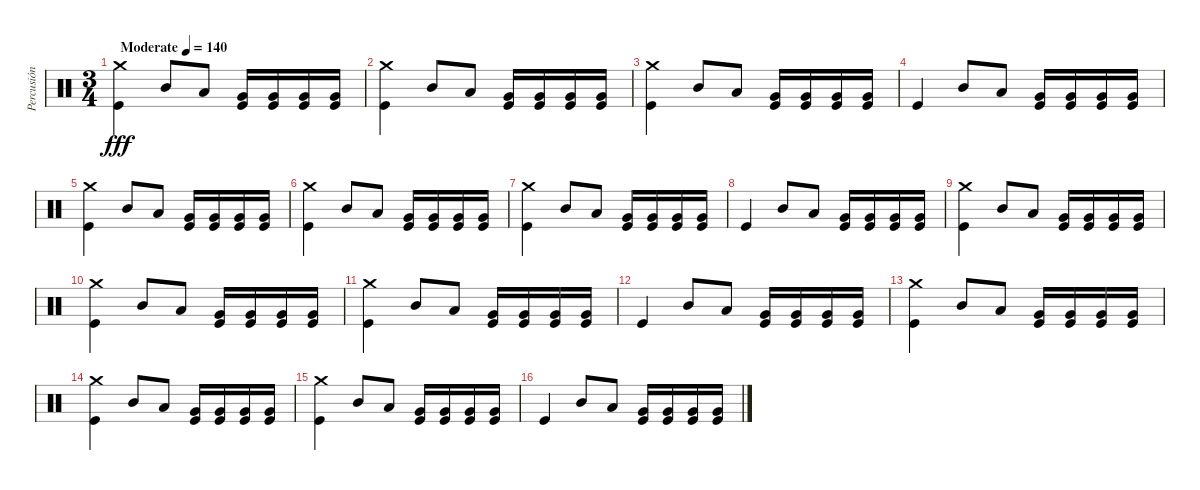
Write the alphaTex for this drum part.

\track ("Percusión" "Percusión") {instrument percussion}
\staff {score}
\articulation defaults
\ts (3 4)
\tempo (140 "Moderate")
\clef neutral
\ks c
("Crash medium (hit)" "Kick (hit)").4{dy fff} "Mid Tom (hit)".8 "Low Tom (hit)".8 ("Very Low Tom (hit)" "Kick (hit)").16 ("Very Low Tom (hit)" "Kick (hit)").16 ("Very Low Tom (hit)" "Kick (hit)").16 ("Very Low Tom (hit)" "Kick (hit)").16 |
("Crash medium (hit)" "Kick (hit)").4 "Mid Tom (hit)".8 "Low Tom (hit)".8 ("Very Low Tom (hit)" "Kick (hit)").16 ("Very Low Tom (hit)" "Kick (hit)").16 ("Very Low Tom (hit)" "Kick (hit)").16 ("Very Low Tom (hit)" "Kick (hit)").16 |
("Crash medium (hit)" "Kick (hit)").4 "Mid Tom (hit)".8 "Low Tom (hit)".8 ("Very Low Tom (hit)" "Kick (hit)").16 ("Very Low Tom (hit)" "Kick (hit)").16 ("Very Low Tom (hit)" "Kick (hit)").16 ("Very Low Tom (hit)" "Kick (hit)").16 |
"Kick (hit)".4 "Mid Tom (hit)".8 "Low Tom (hit)".8 ("Very Low Tom (hit)" "Kick (hit)").16 ("Very Low Tom (hit)" "Kick (hit)").16 ("Very Low Tom (hit)" "Kick (hit)").16 ("Very Low Tom (hit)" "Kick (hit)").16 |
("Crash medium (hit)" "Kick (hit)").4 "Mid Tom (hit)".8 "Low Tom (hit)".8 ("Very Low Tom (hit)" "Kick (hit)").16 ("Very Low Tom (hit)" "Kick (hit)").16 ("Very Low Tom (hit)" "Kick (hit)").16 ("Very Low Tom (hit)" "Kick (hit)").16 |
("Crash medium (hit)" "Kick (hit)").4 "Mid Tom (hit)".8 "Low Tom (hit)".8 ("Very Low Tom (hit)" "Kick (hit)").16 ("Very Low Tom (hit)" "Kick (hit)").16 ("Very Low Tom (hit)" "Kick (hit)").16 ("Very Low Tom (hit)" "Kick (hit)").16 |
("Crash medium (hit)" "Kick (hit)").4 "Mid Tom (hit)".8 "Low Tom (hit)".8 ("Very Low Tom (hit)" "Kick (hit)").16 ("Very Low Tom (hit)" "Kick (hit)").16 ("Very Low Tom (hit)" "Kick (hit)").16 ("Very Low Tom (hit)" "Kick (hit)").16 |
"Kick (hit)".4 "Mid Tom (hit)".8 "Low Tom (hit)".8 ("Very Low Tom (hit)" "Kick (hit)").16 ("Very Low Tom (hit)" "Kick (hit)").16 ("Very Low Tom (hit)" "Kick (hit)").16 ("Very Low Tom (hit)" "Kick (hit)").16 |
("Crash medium (hit)" "Kick (hit)").4 "Mid Tom (hit)".8 "Low Tom (hit)".8 ("Very Low Tom (hit)" "Kick (hit)").16 ("Very Low Tom (hit)" "Kick (hit)").16 ("Very Low Tom (hit)" "Kick (hit)").16 ("Very Low Tom (hit)" "Kick (hit)").16 |
("Crash medium (hit)" "Kick (hit)").4 "Mid Tom (hit)".8 "Low Tom (hit)".8 ("Very Low Tom (hit)" "Kick (hit)").16 ("Very Low Tom (hit)" "Kick (hit)").16 ("Very Low Tom (hit)" "Kick (hit)").16 ("Very Low Tom (hit)" "Kick (hit)").16 |
("Crash medium (hit)" "Kick (hit)").4 "Mid Tom (hit)".8 "Low Tom (hit)".8 ("Very Low Tom (hit)" "Kick (hit)").16 ("Very Low Tom (hit)" "Kick (hit)").16 ("Very Low Tom (hit)" "Kick (hit)").16 ("Very Low Tom (hit)" "Kick (hit)").16 |
"Kick (hit)".4 "Mid Tom (hit)".8 "Low Tom (hit)".8 ("Very Low Tom (hit)" "Kick (hit)").16 ("Very Low Tom (hit)" "Kick (hit)").16 ("Very Low Tom (hit)" "Kick (hit)").16 ("Very Low Tom (hit)" "Kick (hit)").16 |
("Crash medium (hit)" "Kick (hit)").4 "Mid Tom (hit)".8 "Low Tom (hit)".8 ("Very Low Tom (hit)" "Kick (hit)").16 ("Very Low Tom (hit)" "Kick (hit)").16 ("Very Low Tom (hit)" "Kick (hit)").16 ("Very Low Tom (hit)" "Kick (hit)").16 |
("Crash medium (hit)" "Kick (hit)").4 "Mid Tom (hit)".8 "Low Tom (hit)".8 ("Very Low Tom (hit)" "Kick (hit)").16 ("Very Low Tom (hit)" "Kick (hit)").16 ("Very Low Tom (hit)" "Kick (hit)").16 ("Very Low Tom (hit)" "Kick (hit)").16 |
("Crash medium (hit)" "Kick (hit)").4 "Mid Tom (hit)".8 "Low Tom (hit)".8 ("Very Low Tom (hit)" "Kick (hit)").16 ("Very Low Tom (hit)" "Kick (hit)").16 ("Very Low Tom (hit)" "Kick (hit)").16 ("Very Low Tom (hit)" "Kick (hit)").16 |
"Kick (hit)".4 "Mid Tom (hit)".8 "Low Tom (hit)".8 ("Very Low Tom (hit)" "Kick (hit)").16 ("Very Low Tom (hit)" "Kick (hit)").16 ("Very Low Tom (hit)" "Kick (hit)").16 ("Very Low Tom (hit)" "Kick (hit)").16
